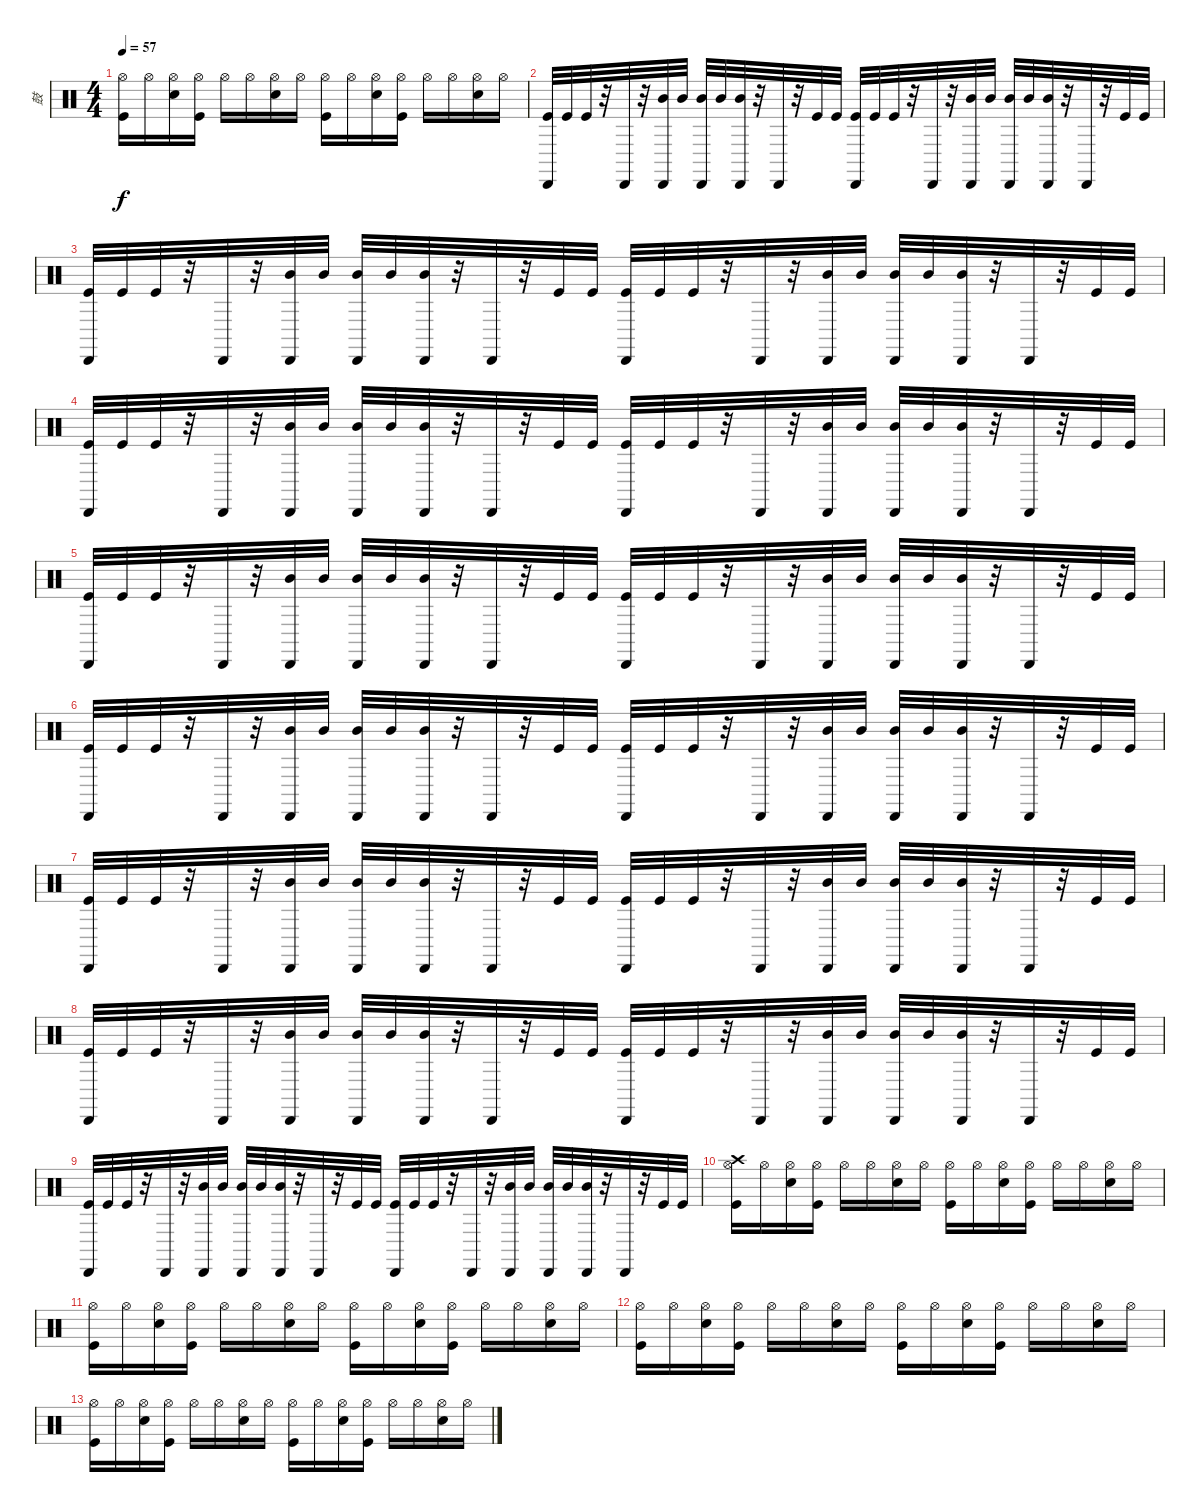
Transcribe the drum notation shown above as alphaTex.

\track ("鼓" "鼓") {instrument percussion}
\staff {score}
\articulation defaults
\ts (4 4)
\tempo 57
\clef neutral
\ks c
("Kick (hit)" "Hi-Hat (open)").16{dy f} "Hi-Hat (open)".16 ("Electric Snare (hit)" "Hi-Hat (open)").16 ("Kick (hit)" "Hi-Hat (open)").16 "Hi-Hat (open)".16 "Hi-Hat (open)".16 ("Electric Snare (hit)" "Hi-Hat (open)").16 "Hi-Hat (open)".16 ("Kick (hit)" "Hi-Hat (open)").16 "Hi-Hat (open)".16 ("Electric Snare (hit)" "Hi-Hat (open)").16 ("Kick (hit)" "Hi-Hat (open)").16 "Hi-Hat (open)".16 "Hi-Hat (open)".16 ("Electric Snare (hit)" "Hi-Hat (open)").16 "Hi-Hat (open)".16 |
("Kick (hit)" "Cabasa (hit)").32 "Kick (hit)".32 "Kick (hit)".32 r.32 "Cabasa (hit)".32 r.32 ("Mid Tom (hit)" "Cabasa (hit)").32 "Mid Tom (hit)".32 ("Mid Tom (hit)" "Cabasa (hit)").32 "Mid Tom (hit)".32 ("Mid Tom (hit)" "Cabasa (hit)").32 r.32 "Cabasa (hit)".32 r.32 "Kick (hit)".32 "Kick (hit)".32 ("Kick (hit)" "Cabasa (hit)").32 "Kick (hit)".32 "Kick (hit)".32 r.32 "Cabasa (hit)".32 r.32 ("Mid Tom (hit)" "Cabasa (hit)").32 "Mid Tom (hit)".32 ("Mid Tom (hit)" "Cabasa (hit)").32 "Mid Tom (hit)".32 ("Mid Tom (hit)" "Cabasa (hit)").32 r.32 "Cabasa (hit)".32 r.32 "Kick (hit)".32 "Kick (hit)".32 |
("Kick (hit)" "Cabasa (hit)").32 "Kick (hit)".32 "Kick (hit)".32 r.32 "Cabasa (hit)".32 r.32 ("Mid Tom (hit)" "Cabasa (hit)").32 "Mid Tom (hit)".32 ("Mid Tom (hit)" "Cabasa (hit)").32 "Mid Tom (hit)".32 ("Mid Tom (hit)" "Cabasa (hit)").32 r.32 "Cabasa (hit)".32 r.32 "Kick (hit)".32 "Kick (hit)".32 ("Kick (hit)" "Cabasa (hit)").32 "Kick (hit)".32 "Kick (hit)".32 r.32 "Cabasa (hit)".32 r.32 ("Mid Tom (hit)" "Cabasa (hit)").32 "Mid Tom (hit)".32 ("Mid Tom (hit)" "Cabasa (hit)").32 "Mid Tom (hit)".32 ("Mid Tom (hit)" "Cabasa (hit)").32 r.32 "Cabasa (hit)".32 r.32 "Kick (hit)".32 "Kick (hit)".32 |
("Kick (hit)" "Cabasa (hit)").32 "Kick (hit)".32 "Kick (hit)".32 r.32 "Cabasa (hit)".32 r.32 ("Mid Tom (hit)" "Cabasa (hit)").32 "Mid Tom (hit)".32 ("Mid Tom (hit)" "Cabasa (hit)").32 "Mid Tom (hit)".32 ("Mid Tom (hit)" "Cabasa (hit)").32 r.32 "Cabasa (hit)".32 r.32 "Kick (hit)".32 "Kick (hit)".32 ("Kick (hit)" "Cabasa (hit)").32 "Kick (hit)".32 "Kick (hit)".32 r.32 "Cabasa (hit)".32 r.32 ("Mid Tom (hit)" "Cabasa (hit)").32 "Mid Tom (hit)".32 ("Mid Tom (hit)" "Cabasa (hit)").32 "Mid Tom (hit)".32 ("Mid Tom (hit)" "Cabasa (hit)").32 r.32 "Cabasa (hit)".32 r.32 "Kick (hit)".32 "Kick (hit)".32 |
("Kick (hit)" "Cabasa (hit)").32 "Kick (hit)".32 "Kick (hit)".32 r.32 "Cabasa (hit)".32 r.32 ("Mid Tom (hit)" "Cabasa (hit)").32 "Mid Tom (hit)".32 ("Mid Tom (hit)" "Cabasa (hit)").32 "Mid Tom (hit)".32 ("Mid Tom (hit)" "Cabasa (hit)").32 r.32 "Cabasa (hit)".32 r.32 "Kick (hit)".32 "Kick (hit)".32 ("Kick (hit)" "Cabasa (hit)").32 "Kick (hit)".32 "Kick (hit)".32 r.32 "Cabasa (hit)".32 r.32 ("Mid Tom (hit)" "Cabasa (hit)").32 "Mid Tom (hit)".32 ("Mid Tom (hit)" "Cabasa (hit)").32 "Mid Tom (hit)".32 ("Mid Tom (hit)" "Cabasa (hit)").32 r.32 "Cabasa (hit)".32 r.32 "Kick (hit)".32 "Kick (hit)".32 |
("Kick (hit)" "Cabasa (hit)").32 "Kick (hit)".32 "Kick (hit)".32 r.32 "Cabasa (hit)".32 r.32 ("Mid Tom (hit)" "Cabasa (hit)").32 "Mid Tom (hit)".32 ("Mid Tom (hit)" "Cabasa (hit)").32 "Mid Tom (hit)".32 ("Mid Tom (hit)" "Cabasa (hit)").32 r.32 "Cabasa (hit)".32 r.32 "Kick (hit)".32 "Kick (hit)".32 ("Kick (hit)" "Cabasa (hit)").32 "Kick (hit)".32 "Kick (hit)".32 r.32 "Cabasa (hit)".32 r.32 ("Mid Tom (hit)" "Cabasa (hit)").32 "Mid Tom (hit)".32 ("Mid Tom (hit)" "Cabasa (hit)").32 "Mid Tom (hit)".32 ("Mid Tom (hit)" "Cabasa (hit)").32 r.32 "Cabasa (hit)".32 r.32 "Kick (hit)".32 "Kick (hit)".32 |
("Kick (hit)" "Cabasa (hit)").32 "Kick (hit)".32 "Kick (hit)".32 r.32 "Cabasa (hit)".32 r.32 ("Mid Tom (hit)" "Cabasa (hit)").32 "Mid Tom (hit)".32 ("Mid Tom (hit)" "Cabasa (hit)").32 "Mid Tom (hit)".32 ("Mid Tom (hit)" "Cabasa (hit)").32 r.32 "Cabasa (hit)".32 r.32 "Kick (hit)".32 "Kick (hit)".32 ("Kick (hit)" "Cabasa (hit)").32 "Kick (hit)".32 "Kick (hit)".32 r.32 "Cabasa (hit)".32 r.32 ("Mid Tom (hit)" "Cabasa (hit)").32 "Mid Tom (hit)".32 ("Mid Tom (hit)" "Cabasa (hit)").32 "Mid Tom (hit)".32 ("Mid Tom (hit)" "Cabasa (hit)").32 r.32 "Cabasa (hit)".32 r.32 "Kick (hit)".32 "Kick (hit)".32 |
("Kick (hit)" "Cabasa (hit)").32 "Kick (hit)".32 "Kick (hit)".32 r.32 "Cabasa (hit)".32 r.32 ("Mid Tom (hit)" "Cabasa (hit)").32 "Mid Tom (hit)".32 ("Mid Tom (hit)" "Cabasa (hit)").32 "Mid Tom (hit)".32 ("Mid Tom (hit)" "Cabasa (hit)").32 r.32 "Cabasa (hit)".32 r.32 "Kick (hit)".32 "Kick (hit)".32 ("Kick (hit)" "Cabasa (hit)").32 "Kick (hit)".32 "Kick (hit)".32 r.32 "Cabasa (hit)".32 r.32 ("Mid Tom (hit)" "Cabasa (hit)").32 "Mid Tom (hit)".32 ("Mid Tom (hit)" "Cabasa (hit)").32 "Mid Tom (hit)".32 ("Mid Tom (hit)" "Cabasa (hit)").32 r.32 "Cabasa (hit)".32 r.32 "Kick (hit)".32 "Kick (hit)".32 |
("Kick (hit)" "Cabasa (hit)").32 "Kick (hit)".32 "Kick (hit)".32 r.32 "Cabasa (hit)".32 r.32 ("Mid Tom (hit)" "Cabasa (hit)").32 "Mid Tom (hit)".32 ("Mid Tom (hit)" "Cabasa (hit)").32 "Mid Tom (hit)".32 ("Mid Tom (hit)" "Cabasa (hit)").32 r.32 "Cabasa (hit)".32 r.32 "Kick (hit)".32 "Kick (hit)".32 ("Kick (hit)" "Cabasa (hit)").32 "Kick (hit)".32 "Kick (hit)".32 r.32 "Cabasa (hit)".32 r.32 ("Mid Tom (hit)" "Cabasa (hit)").32 "Mid Tom (hit)".32 ("Mid Tom (hit)" "Cabasa (hit)").32 "Mid Tom (hit)".32 ("Mid Tom (hit)" "Cabasa (hit)").32 r.32 "Cabasa (hit)".32 r.32 "Kick (hit)".32 "Kick (hit)".32 |
("Crash high (hit)" "Kick (hit)" "Hi-Hat (open)").16 "Hi-Hat (open)".16 ("Electric Snare (hit)" "Hi-Hat (open)").16 ("Kick (hit)" "Hi-Hat (open)").16 "Hi-Hat (open)".16 "Hi-Hat (open)".16 ("Electric Snare (hit)" "Hi-Hat (open)").16 "Hi-Hat (open)".16 ("Kick (hit)" "Hi-Hat (open)").16 "Hi-Hat (open)".16 ("Electric Snare (hit)" "Hi-Hat (open)").16 ("Kick (hit)" "Hi-Hat (open)").16 "Hi-Hat (open)".16 "Hi-Hat (open)".16 ("Electric Snare (hit)" "Hi-Hat (open)").16 "Hi-Hat (open)".16 |
("Kick (hit)" "Hi-Hat (open)").16 "Hi-Hat (open)".16 ("Electric Snare (hit)" "Hi-Hat (open)").16 ("Kick (hit)" "Hi-Hat (open)").16 "Hi-Hat (open)".16 "Hi-Hat (open)".16 ("Electric Snare (hit)" "Hi-Hat (open)").16 "Hi-Hat (open)".16 ("Kick (hit)" "Hi-Hat (open)").16 "Hi-Hat (open)".16 ("Electric Snare (hit)" "Hi-Hat (open)").16 ("Kick (hit)" "Hi-Hat (open)").16 "Hi-Hat (open)".16 "Hi-Hat (open)".16 ("Electric Snare (hit)" "Hi-Hat (open)").16 "Hi-Hat (open)".16 |
("Kick (hit)" "Hi-Hat (open)").16 "Hi-Hat (open)".16 ("Electric Snare (hit)" "Hi-Hat (open)").16 ("Kick (hit)" "Hi-Hat (open)").16 "Hi-Hat (open)".16 "Hi-Hat (open)".16 ("Electric Snare (hit)" "Hi-Hat (open)").16 "Hi-Hat (open)".16 ("Kick (hit)" "Hi-Hat (open)").16 "Hi-Hat (open)".16 ("Electric Snare (hit)" "Hi-Hat (open)").16 ("Kick (hit)" "Hi-Hat (open)").16 "Hi-Hat (open)".16 "Hi-Hat (open)".16 ("Electric Snare (hit)" "Hi-Hat (open)").16 "Hi-Hat (open)".16 |
("Kick (hit)" "Hi-Hat (open)").16 "Hi-Hat (open)".16 ("Electric Snare (hit)" "Hi-Hat (open)").16 ("Kick (hit)" "Hi-Hat (open)").16 "Hi-Hat (open)".16 "Hi-Hat (open)".16 ("Electric Snare (hit)" "Hi-Hat (open)").16 "Hi-Hat (open)".16 ("Kick (hit)" "Hi-Hat (open)").16 "Hi-Hat (open)".16 ("Electric Snare (hit)" "Hi-Hat (open)").16 ("Kick (hit)" "Hi-Hat (open)").16 "Hi-Hat (open)".16 "Hi-Hat (open)".16 ("Electric Snare (hit)" "Hi-Hat (open)").16 "Hi-Hat (open)".16
